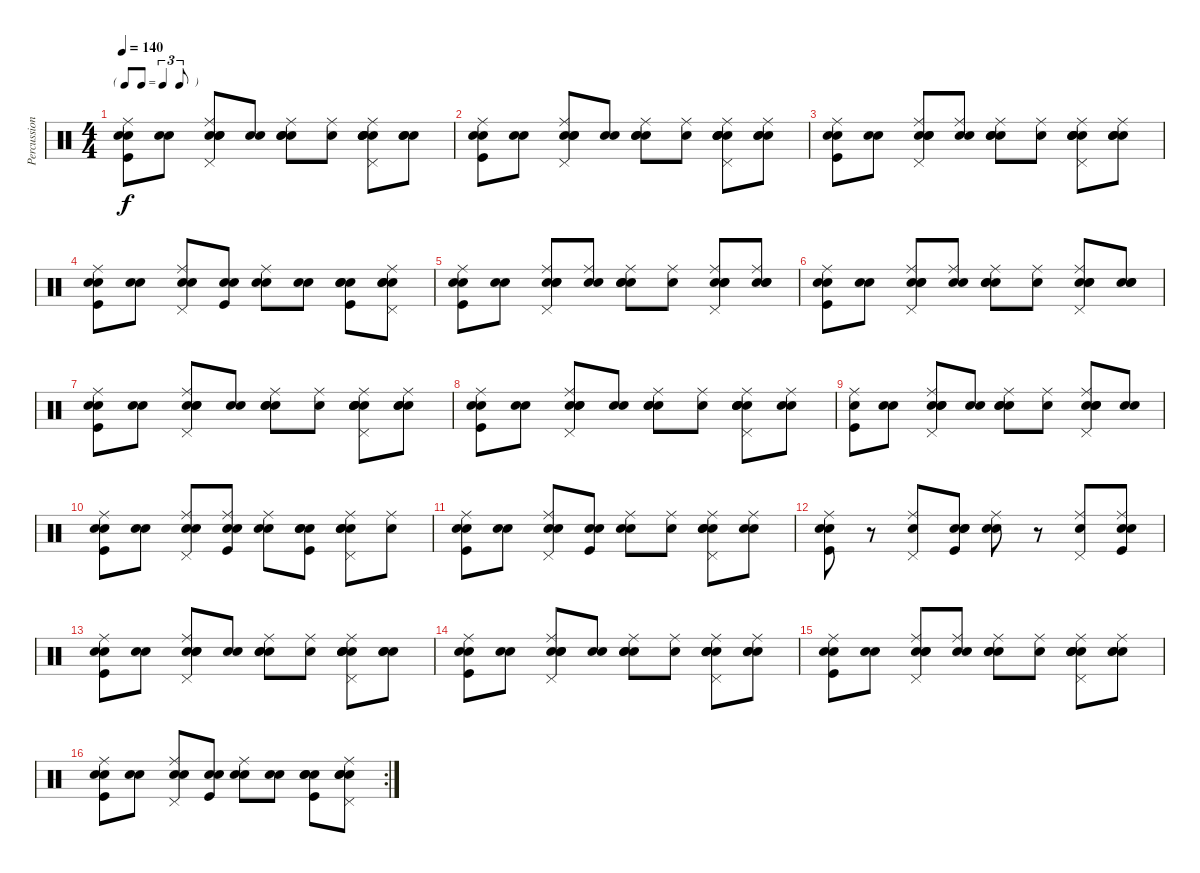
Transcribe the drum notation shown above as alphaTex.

\track ("Percussions" "Percussion") {instrument percussion}
\staff {score}
\articulation defaults
\ts (4 4)
\tf triplet8th
\tempo 140
\clef neutral
\ks c
("Snare (hit)" "Kick (hit)" "Electric Snare (hit)" "Ride (middle)").8{dy f} ("Snare (hit)" "Electric Snare (hit)").8 ("Snare (hit)" "Snare (hit) 2" "Electric Snare (hit)" "Ride (middle)" "Pedal Hi-Hat (hit)").8 ("Snare (hit)" "Snare (hit) 2").8 ("Snare (hit)" "Snare (hit) 2" "Electric Snare (hit)" "Ride (middle)").8 ("Snare (hit)" "Ride (middle)").8 ("Snare (hit)" "Snare (hit) 2" "Electric Snare (hit)" "Ride (middle)" "Pedal Hi-Hat (hit)" "Hand Clap (hit)").8 ("Snare (hit)" "Snare (hit) 2" "Hand Clap (hit)").8 |
("Snare (hit)" "Kick (hit)" "Electric Snare (hit)" "Ride (middle)").8 ("Snare (hit)" "Electric Snare (hit)").8 ("Snare (hit)" "Snare (hit) 2" "Electric Snare (hit)" "Ride (middle)" "Pedal Hi-Hat (hit)").8 ("Snare (hit)" "Snare (hit) 2").8 ("Snare (hit)" "Snare (hit) 2" "Electric Snare (hit)" "Ride (middle)").8 ("Snare (hit)" "Ride (middle)").8 ("Snare (hit)" "Snare (hit) 2" "Electric Snare (hit)" "Ride (middle)" "Pedal Hi-Hat (hit)" "Hand Clap (hit)").8 ("Snare (hit)" "Snare (hit) 2" "Ride (middle)" "Hand Clap (hit)").8 |
("Snare (hit)" "Kick (hit)" "Electric Snare (hit)" "Ride (middle)").8 ("Snare (hit)" "Electric Snare (hit)").8 ("Snare (hit)" "Snare (hit) 2" "Electric Snare (hit)" "Ride (middle)" "Pedal Hi-Hat (hit)").8 ("Snare (hit)" "Snare (hit) 2" "Ride (middle)").8 ("Snare (hit)" "Snare (hit) 2" "Electric Snare (hit)" "Ride (middle)").8 ("Snare (hit)" "Ride (middle)").8 ("Snare (hit)" "Snare (hit) 2" "Electric Snare (hit)" "Ride (middle)" "Pedal Hi-Hat (hit)" "Hand Clap (hit)").8 ("Snare (hit)" "Snare (hit) 2" "Ride (middle)" "Hand Clap (hit)").8 |
("Snare (hit)" "Kick (hit)" "Electric Snare (hit)" "Ride (middle)").8 ("Snare (hit)" "Electric Snare (hit)").8 ("Snare (hit)" "Snare (hit) 2" "Ride (middle)" "Pedal Hi-Hat (hit)").8 ("Snare (hit)" "Kick (hit)" "Hand Clap (hit)").8 ("Snare (hit)" "Electric Snare (hit)" "Ride (middle)").8 ("Snare (hit)" "Snare (hit) 2").8 ("Snare (hit)" "Kick (hit)" "Electric Snare (hit)" "Hand Clap (hit)").8 ("Snare (hit)" "Electric Snare (hit)" "Ride (middle)" "Pedal Hi-Hat (hit)" "Hand Clap (hit)").8 |
("Snare (hit)" "Kick (hit)" "Electric Snare (hit)" "Ride (middle)").8 ("Snare (hit)" "Electric Snare (hit)").8 ("Snare (hit)" "Snare (hit) 2" "Electric Snare (hit)" "Ride (middle)" "Pedal Hi-Hat (hit)").8 ("Snare (hit)" "Snare (hit) 2" "Ride (middle)").8 ("Snare (hit)" "Snare (hit) 2" "Electric Snare (hit)" "Ride (middle)").8 ("Snare (hit)" "Ride (middle)").8 ("Snare (hit)" "Snare (hit) 2" "Electric Snare (hit)" "Ride (middle)" "Pedal Hi-Hat (hit)").8 ("Snare (hit)" "Snare (hit) 2" "Ride (middle)" "Hand Clap (hit)").8 |
("Snare (hit)" "Kick (hit)" "Electric Snare (hit)" "Ride (middle)").8 ("Snare (hit)" "Electric Snare (hit)").8 ("Snare (hit)" "Snare (hit) 2" "Electric Snare (hit)" "Ride (middle)" "Pedal Hi-Hat (hit)").8 ("Snare (hit)" "Snare (hit) 2" "Ride (middle)").8 ("Snare (hit)" "Snare (hit) 2" "Electric Snare (hit)" "Ride (middle)").8 ("Snare (hit)" "Ride (middle)").8 ("Snare (hit)" "Snare (hit) 2" "Electric Snare (hit)" "Ride (middle)" "Pedal Hi-Hat (hit)").8 ("Snare (hit)" "Snare (hit) 2" "Hand Clap (hit)").8 |
("Snare (hit)" "Kick (hit)" "Electric Snare (hit)" "Ride (middle)").8 ("Snare (hit)" "Electric Snare (hit)").8 ("Snare (hit)" "Snare (hit) 2" "Electric Snare (hit)" "Ride (middle)" "Pedal Hi-Hat (hit)").8 ("Snare (hit)" "Snare (hit) 2").8 ("Snare (hit)" "Snare (hit) 2" "Electric Snare (hit)" "Ride (middle)").8 ("Snare (hit)" "Ride (middle)").8 ("Snare (hit)" "Snare (hit) 2" "Electric Snare (hit)" "Ride (middle)" "Pedal Hi-Hat (hit)" "Hand Clap (hit)").8 ("Snare (hit)" "Snare (hit) 2" "Ride (middle)" "Hand Clap (hit)").8 |
("Snare (hit)" "Kick (hit)" "Electric Snare (hit)" "Ride (middle)").8 ("Snare (hit)" "Electric Snare (hit)").8 ("Snare (hit)" "Snare (hit) 2" "Electric Snare (hit)" "Ride (middle)" "Pedal Hi-Hat (hit)").8 ("Snare (hit)" "Snare (hit) 2").8 ("Snare (hit)" "Snare (hit) 2" "Electric Snare (hit)" "Ride (middle)").8 ("Snare (hit)" "Ride (middle)").8 ("Snare (hit)" "Snare (hit) 2" "Electric Snare (hit)" "Ride (middle)" "Pedal Hi-Hat (hit)" "Hand Clap (hit)").8 ("Snare (hit)" "Snare (hit) 2" "Ride (middle)").8 |
("Kick (hit)" "Electric Snare (hit)" "Ride (middle)").8 ("Snare (hit)" "Electric Snare (hit)").8 ("Snare (hit)" "Snare (hit) 2" "Electric Snare (hit)" "Ride (middle)" "Pedal Hi-Hat (hit)").8 ("Snare (hit)" "Snare (hit) 2").8 ("Snare (hit)" "Snare (hit) 2" "Electric Snare (hit)" "Ride (middle)").8 ("Snare (hit)" "Ride (middle)").8 ("Snare (hit)" "Snare (hit) 2" "Electric Snare (hit)" "Ride (middle)" "Pedal Hi-Hat (hit)").8 ("Snare (hit)" "Snare (hit) 2").8 |
("Snare (hit)" "Kick (hit)" "Electric Snare (hit)" "Ride (middle)").8 ("Snare (hit)" "Electric Snare (hit)").8 ("Snare (hit)" "Snare (hit) 2" "Ride (middle)" "Pedal Hi-Hat (hit)").8 ("Snare (hit)" "Kick (hit)" "Snare (hit) 2" "Ride (middle)").8 ("Snare (hit)" "Electric Snare (hit)" "Ride (middle)").8 ("Snare (hit)" "Kick (hit)" "Electric Snare (hit)" "Hand Clap (hit)").8 ("Snare (hit)" "Electric Snare (hit)" "Ride (middle)" "Pedal Hi-Hat (hit)" "Hand Clap (hit)").8 ("Snare (hit)" "Ride (middle)").8 |
("Snare (hit)" "Kick (hit)" "Electric Snare (hit)" "Ride (middle)").8 ("Snare (hit)" "Electric Snare (hit)").8 ("Snare (hit)" "Snare (hit) 2" "Ride (middle)" "Pedal Hi-Hat (hit)").8 ("Snare (hit)" "Kick (hit)" "Hand Clap (hit)").8 ("Snare (hit)" "Electric Snare (hit)" "Ride (middle)").8 ("Snare (hit)" "Ride (middle)").8 ("Snare (hit)" "Snare (hit) 2" "Ride (middle)" "Pedal Hi-Hat (hit)" "Hand Clap (hit)").8 ("Snare (hit)" "Snare (hit) 2" "Ride (middle)").8 |
("Snare (hit)" "Kick (hit)" "Electric Snare (hit)" "Ride (middle)").8 r.8 ("Snare (hit) 2" "Ride (middle)" "Pedal Hi-Hat (hit)").8 ("Snare (hit)" "Kick (hit)" "Snare (hit) 2" "Hand Clap (hit)").8 ("Snare (hit)" "Electric Snare (hit)" "Ride (middle)").8 r.8 ("Snare (hit) 2" "Ride (middle)" "Pedal Hi-Hat (hit)").8 ("Snare (hit)" "Kick (hit)" "Ride (middle)" "Hand Clap (hit)").8 |
("Snare (hit)" "Kick (hit)" "Electric Snare (hit)" "Ride (middle)").8 ("Snare (hit)" "Electric Snare (hit)").8 ("Snare (hit)" "Snare (hit) 2" "Electric Snare (hit)" "Ride (middle)" "Pedal Hi-Hat (hit)").8 ("Snare (hit)" "Snare (hit) 2").8 ("Snare (hit)" "Snare (hit) 2" "Electric Snare (hit)" "Ride (middle)").8 ("Snare (hit)" "Ride (middle)").8 ("Snare (hit)" "Snare (hit) 2" "Electric Snare (hit)" "Ride (middle)" "Pedal Hi-Hat (hit)" "Hand Clap (hit)").8 ("Snare (hit)" "Snare (hit) 2" "Hand Clap (hit)").8 |
("Snare (hit)" "Kick (hit)" "Electric Snare (hit)" "Ride (middle)").8 ("Snare (hit)" "Electric Snare (hit)").8 ("Snare (hit)" "Snare (hit) 2" "Electric Snare (hit)" "Ride (middle)" "Pedal Hi-Hat (hit)").8 ("Snare (hit)" "Snare (hit) 2").8 ("Snare (hit)" "Snare (hit) 2" "Electric Snare (hit)" "Ride (middle)").8 ("Snare (hit)" "Ride (middle)").8 ("Snare (hit)" "Snare (hit) 2" "Electric Snare (hit)" "Ride (middle)" "Pedal Hi-Hat (hit)" "Hand Clap (hit)").8 ("Snare (hit)" "Snare (hit) 2" "Ride (middle)" "Hand Clap (hit)").8 |
("Snare (hit)" "Kick (hit)" "Electric Snare (hit)" "Ride (middle)").8 ("Snare (hit)" "Electric Snare (hit)").8 ("Snare (hit)" "Snare (hit) 2" "Electric Snare (hit)" "Ride (middle)" "Pedal Hi-Hat (hit)").8 ("Snare (hit)" "Snare (hit) 2" "Ride (middle)").8 ("Snare (hit)" "Snare (hit) 2" "Electric Snare (hit)" "Ride (middle)").8 ("Snare (hit)" "Ride (middle)").8 ("Snare (hit)" "Snare (hit) 2" "Electric Snare (hit)" "Ride (middle)" "Pedal Hi-Hat (hit)" "Hand Clap (hit)").8 ("Snare (hit)" "Snare (hit) 2" "Ride (middle)" "Hand Clap (hit)").8 |
\rc 2
("Snare (hit)" "Kick (hit)" "Electric Snare (hit)" "Ride (middle)").8 ("Snare (hit)" "Electric Snare (hit)").8 ("Snare (hit)" "Snare (hit) 2" "Ride (middle)" "Pedal Hi-Hat (hit)").8 ("Snare (hit)" "Kick (hit)" "Hand Clap (hit)").8 ("Snare (hit)" "Electric Snare (hit)" "Ride (middle)").8 ("Snare (hit)" "Snare (hit) 2").8 ("Snare (hit)" "Kick (hit)" "Electric Snare (hit)" "Hand Clap (hit)").8 ("Snare (hit)" "Electric Snare (hit)" "Ride (middle)" "Pedal Hi-Hat (hit)" "Hand Clap (hit)").8
